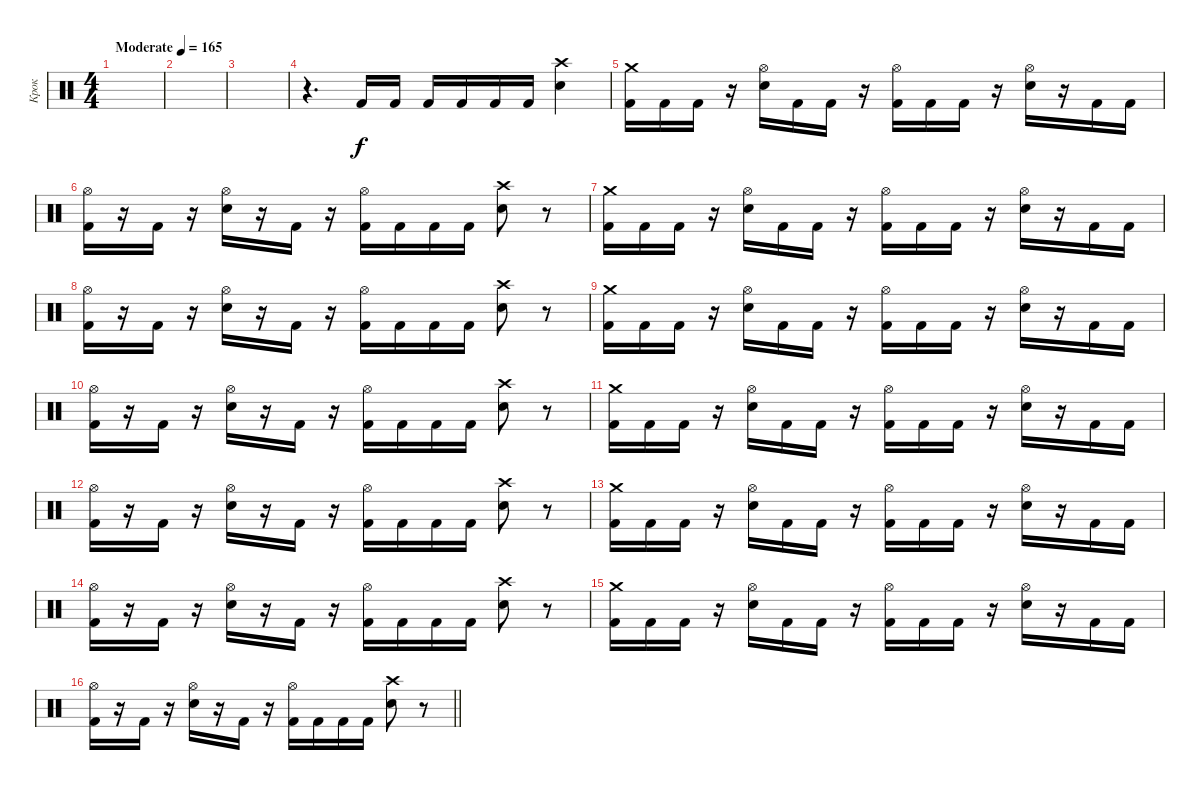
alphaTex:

\track ("Крок" "Крок") {instrument percussion}
\staff {score}
\articulation defaults
\ts (4 4)
\tempo (165 "Moderate")
\clef neutral
\ks c
|
|
|
r.4{d} "Kick (hit) 2".16 "Kick (hit) 2".16 "Kick (hit) 2".16 "Kick (hit) 2".16 "Kick (hit) 2".16 "Kick (hit) 2".16 ("Crash high (hit)" "Electric Snare (hit)").4 |
("Kick (hit) 2" "Crash medium (hit)").16 "Kick (hit) 2".16 "Kick (hit) 2".16 r.16 ("Electric Snare (hit)" "Hi-Hat (open)").16 "Kick (hit) 2".16 "Kick (hit) 2".16 r.16 ("Kick (hit) 2" "Hi-Hat (open)").16 "Kick (hit) 2".16 "Kick (hit) 2".16 r.16 ("Electric Snare (hit)" "Hi-Hat (open)").16 r.16 "Kick (hit) 2".16 "Kick (hit) 2".16 |
("Kick (hit) 2" "Hi-Hat (open)").16 r.16 "Kick (hit) 2".16 r.16 ("Electric Snare (hit)" "Hi-Hat (open)").16 r.16 "Kick (hit) 2".16 r.16 ("Kick (hit) 2" "Hi-Hat (open)").16 "Kick (hit) 2".16 "Kick (hit) 2".16 "Kick (hit) 2".16 ("Electric Snare (hit)" "Crash high (hit)").8 r.8 |
("Kick (hit) 2" "Crash medium (hit)").16 "Kick (hit) 2".16 "Kick (hit) 2".16 r.16 ("Electric Snare (hit)" "Hi-Hat (open)").16 "Kick (hit) 2".16 "Kick (hit) 2".16 r.16 ("Kick (hit) 2" "Hi-Hat (open)").16 "Kick (hit) 2".16 "Kick (hit) 2".16 r.16 ("Electric Snare (hit)" "Hi-Hat (open)").16 r.16 "Kick (hit) 2".16 "Kick (hit) 2".16 |
("Kick (hit) 2" "Hi-Hat (open)").16 r.16 "Kick (hit) 2".16 r.16 ("Electric Snare (hit)" "Hi-Hat (open)").16 r.16 "Kick (hit) 2".16 r.16 ("Kick (hit) 2" "Hi-Hat (open)").16 "Kick (hit) 2".16 "Kick (hit) 2".16 "Kick (hit) 2".16 ("Electric Snare (hit)" "Crash high (hit)").8 r.8 |
("Kick (hit) 2" "Crash medium (hit)").16 "Kick (hit) 2".16 "Kick (hit) 2".16 r.16 ("Electric Snare (hit)" "Hi-Hat (open)").16 "Kick (hit) 2".16 "Kick (hit) 2".16 r.16 ("Kick (hit) 2" "Hi-Hat (open)").16 "Kick (hit) 2".16 "Kick (hit) 2".16 r.16 ("Electric Snare (hit)" "Hi-Hat (open)").16 r.16 "Kick (hit) 2".16 "Kick (hit) 2".16 |
("Kick (hit) 2" "Hi-Hat (open)").16 r.16 "Kick (hit) 2".16 r.16 ("Electric Snare (hit)" "Hi-Hat (open)").16 r.16 "Kick (hit) 2".16 r.16 ("Kick (hit) 2" "Hi-Hat (open)").16 "Kick (hit) 2".16 "Kick (hit) 2".16 "Kick (hit) 2".16 ("Electric Snare (hit)" "Crash high (hit)").8 r.8 |
("Kick (hit) 2" "Crash medium (hit)").16 "Kick (hit) 2".16 "Kick (hit) 2".16 r.16 ("Electric Snare (hit)" "Hi-Hat (open)").16 "Kick (hit) 2".16 "Kick (hit) 2".16 r.16 ("Kick (hit) 2" "Hi-Hat (open)").16 "Kick (hit) 2".16 "Kick (hit) 2".16 r.16 ("Electric Snare (hit)" "Hi-Hat (open)").16 r.16 "Kick (hit) 2".16 "Kick (hit) 2".16 |
("Kick (hit) 2" "Hi-Hat (open)").16 r.16 "Kick (hit) 2".16 r.16 ("Electric Snare (hit)" "Hi-Hat (open)").16 r.16 "Kick (hit) 2".16 r.16 ("Kick (hit) 2" "Hi-Hat (open)").16 "Kick (hit) 2".16 "Kick (hit) 2".16 "Kick (hit) 2".16 ("Electric Snare (hit)" "Crash high (hit)").8 r.8 |
("Kick (hit) 2" "Crash medium (hit)").16 "Kick (hit) 2".16 "Kick (hit) 2".16 r.16 ("Electric Snare (hit)" "Hi-Hat (open)").16 "Kick (hit) 2".16 "Kick (hit) 2".16 r.16 ("Kick (hit) 2" "Hi-Hat (open)").16 "Kick (hit) 2".16 "Kick (hit) 2".16 r.16 ("Electric Snare (hit)" "Hi-Hat (open)").16 r.16 "Kick (hit) 2".16 "Kick (hit) 2".16 |
("Kick (hit) 2" "Hi-Hat (open)").16 r.16 "Kick (hit) 2".16 r.16 ("Electric Snare (hit)" "Hi-Hat (open)").16 r.16 "Kick (hit) 2".16 r.16 ("Kick (hit) 2" "Hi-Hat (open)").16 "Kick (hit) 2".16 "Kick (hit) 2".16 "Kick (hit) 2".16 ("Electric Snare (hit)" "Crash high (hit)").8 r.8 |
("Kick (hit) 2" "Crash medium (hit)").16 "Kick (hit) 2".16 "Kick (hit) 2".16 r.16 ("Electric Snare (hit)" "Hi-Hat (open)").16 "Kick (hit) 2".16 "Kick (hit) 2".16 r.16 ("Kick (hit) 2" "Hi-Hat (open)").16 "Kick (hit) 2".16 "Kick (hit) 2".16 r.16 ("Electric Snare (hit)" "Hi-Hat (open)").16 r.16 "Kick (hit) 2".16 "Kick (hit) 2".16 |
\barLineRight lightlight
("Kick (hit) 2" "Hi-Hat (open)").16 r.16 "Kick (hit) 2".16 r.16 ("Electric Snare (hit)" "Hi-Hat (open)").16 r.16 "Kick (hit) 2".16 r.16 ("Kick (hit) 2" "Hi-Hat (open)").16 "Kick (hit) 2".16 "Kick (hit) 2".16 "Kick (hit) 2".16 ("Electric Snare (hit)" "Crash high (hit)").8 r.8
